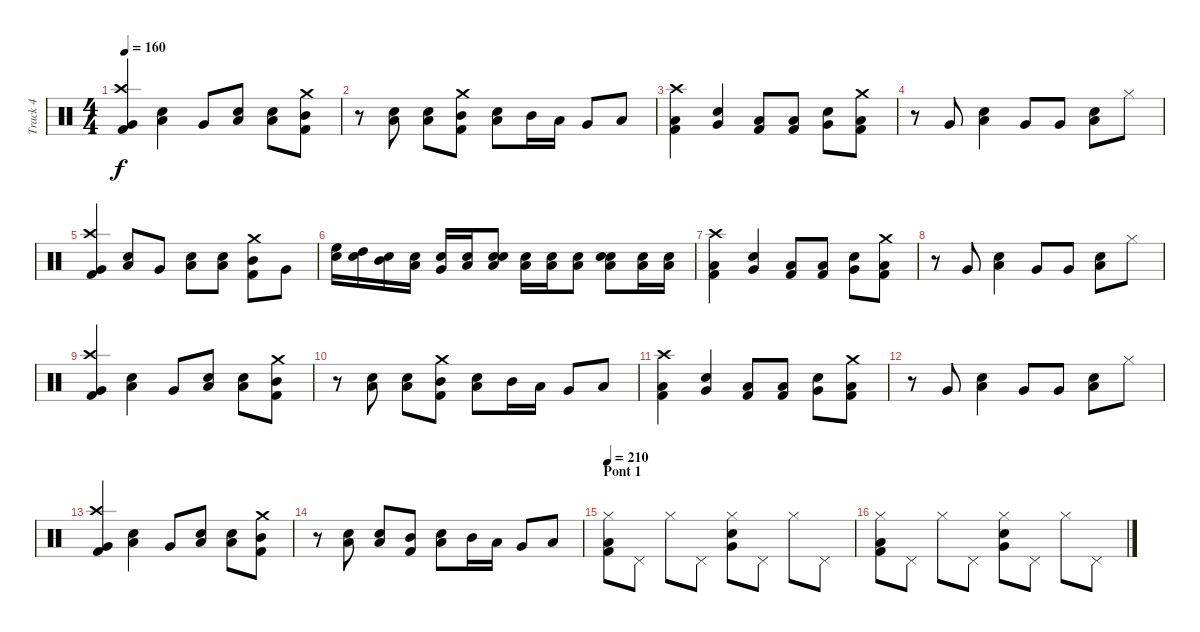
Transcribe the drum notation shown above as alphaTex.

\track ("Track 4" "Track 4") {instrument percussion}
\staff {score}
\articulation defaults
\ts (4 4)
\tempo 160
\clef neutral
\ks c
("Very Low Tom (hit)" "Crash high (hit)" "Kick (hit) 2").4{dy f} ("Low Tom (hit)" "Electric Snare (hit)").4 "Very Low Tom (hit)".8 ("Low Tom (hit)" "Electric Snare (hit)").8 ("Low Tom (hit)" "Electric Snare (hit)").8 ("Mid Tom (hit)" "Kick (hit) 2" "Crash medium (hit)").8 |
r.8 ("Low Tom (hit)" "Electric Snare (hit)").8 ("Low Tom (hit)" "Electric Snare (hit)").8 ("Mid Tom (hit)" "Kick (hit) 2" "Crash medium (hit)").8 ("Low Tom (hit)" "Electric Snare (hit)").8 "Mid Tom (hit)".16 "Low Tom (hit)".16 "Very Low Tom (hit)".8 "Low Floor Tom (hit)".8 |
("Low Tom (hit)" "Crash high (hit)" "Kick (hit) 2").4 ("Electric Snare (hit)" "Very Low Tom (hit)").4 ("Low Tom (hit)" "Kick (hit) 2").8 ("Low Tom (hit)" "Kick (hit) 2").8 ("Electric Snare (hit)" "Very Low Tom (hit)").8 ("Low Tom (hit)" "Kick (hit) 2" "Crash medium (hit)").8 |
r.8 "Very Low Tom (hit)".8 ("Low Tom (hit)" "Electric Snare (hit)").4 "Very Low Tom (hit)".8 "Very Low Tom (hit)".8 ("Low Tom (hit)" "Electric Snare (hit)").8 "Hi-Hat (closed)".8 |
("Very Low Tom (hit)" "Crash high (hit)" "Kick (hit) 2").4 ("Low Tom (hit)" "Electric Snare (hit)").8 "Very Low Tom (hit)".8 ("Low Tom (hit)" "Electric Snare (hit)").8 ("Low Tom (hit)" "Electric Snare (hit)").8 ("Mid Tom (hit)" "Kick (hit) 2" "Crash medium (hit)").8 "Very Low Tom (hit)".8 |
("High Floor Tom (hit)" "Electric Snare (hit)").16 ("High Tom (hit)" "Electric Snare (hit)").16 ("Mid Tom (hit)" "Electric Snare (hit)").16 ("Low Tom (hit)" "Electric Snare (hit)").16 ("Very Low Tom (hit)" "Electric Snare (hit)").16 ("Low Floor Tom (hit)" "Electric Snare (hit)").16 ("Low Tom (hit)" "Electric Snare (hit)" "Snare (hit) 2").8 ("Low Tom (hit)" "Electric Snare (hit)").16 ("Low Floor Tom (hit)" "Electric Snare (hit)").16 ("Low Floor Tom (hit)" "Electric Snare (hit)").8 ("Low Floor Tom (hit)" "Electric Snare (hit)" "Snare (hit) 2").8 ("Low Tom (hit)" "Electric Snare (hit)").16 ("Low Floor Tom (hit)" "Electric Snare (hit)").16 |
("Low Tom (hit)" "Crash high (hit)" "Kick (hit) 2").4 ("Electric Snare (hit)" "Very Low Tom (hit)").4 ("Low Tom (hit)" "Kick (hit) 2").8 ("Low Tom (hit)" "Kick (hit) 2").8 ("Electric Snare (hit)" "Very Low Tom (hit)").8 ("Low Tom (hit)" "Kick (hit) 2" "Crash medium (hit)").8 |
r.8 "Very Low Tom (hit)".8 ("Low Tom (hit)" "Electric Snare (hit)").4 "Very Low Tom (hit)".8 "Very Low Tom (hit)".8 ("Low Tom (hit)" "Electric Snare (hit)").8 "Hi-Hat (closed)".8 |
("Very Low Tom (hit)" "Crash high (hit)" "Kick (hit) 2").4 ("Low Tom (hit)" "Electric Snare (hit)").4 "Very Low Tom (hit)".8 ("Low Tom (hit)" "Electric Snare (hit)").8 ("Low Tom (hit)" "Electric Snare (hit)").8 ("Mid Tom (hit)" "Kick (hit) 2" "Crash medium (hit)").8 |
r.8 ("Low Tom (hit)" "Electric Snare (hit)").8 ("Low Tom (hit)" "Electric Snare (hit)").8 ("Mid Tom (hit)" "Kick (hit) 2" "Crash medium (hit)").8 ("Low Tom (hit)" "Electric Snare (hit)").8 "Mid Tom (hit)".16 "Low Tom (hit)".16 "Very Low Tom (hit)".8 "Low Floor Tom (hit)".8 |
("Low Tom (hit)" "Crash high (hit)" "Kick (hit) 2").4 ("Electric Snare (hit)" "Very Low Tom (hit)").4 ("Low Tom (hit)" "Kick (hit) 2").8 ("Low Tom (hit)" "Kick (hit) 2").8 ("Electric Snare (hit)" "Very Low Tom (hit)").8 ("Low Tom (hit)" "Kick (hit) 2" "Crash medium (hit)").8 |
r.8 "Very Low Tom (hit)".8 ("Low Tom (hit)" "Electric Snare (hit)").4 "Very Low Tom (hit)".8 "Very Low Tom (hit)".8 ("Low Tom (hit)" "Electric Snare (hit)").8 "Hi-Hat (closed)".8 |
("Very Low Tom (hit)" "Crash high (hit)" "Kick (hit) 2").4 ("Low Tom (hit)" "Electric Snare (hit)").4 "Very Low Tom (hit)".8 ("Low Tom (hit)" "Electric Snare (hit)").8 ("Low Tom (hit)" "Electric Snare (hit)").8 ("Mid Tom (hit)" "Kick (hit) 2" "Crash medium (hit)").8 |
r.8 ("Low Tom (hit)" "Electric Snare (hit)").8 ("Low Tom (hit)" "Electric Snare (hit)").8 ("Mid Tom (hit)" "Kick (hit) 2").8 ("Low Tom (hit)" "Electric Snare (hit)").8 "Mid Tom (hit)".16 "Low Tom (hit)".16 "Very Low Tom (hit)".8 "Low Floor Tom (hit)".8 |
\section ("" "Pont 1")
\tempo 210
("Kick (hit) 2" "Low Tom (hit)" "Hi-Hat (closed)").8 "Pedal Hi-Hat (hit)".8 "Hi-Hat (closed)".8 "Pedal Hi-Hat (hit)".8 ("Electric Snare (hit)" "Very Low Tom (hit)" "Hi-Hat (closed)").8 "Pedal Hi-Hat (hit)".8 "Hi-Hat (closed)".8 "Pedal Hi-Hat (hit)".8 |
("Kick (hit) 2" "Low Tom (hit)" "Hi-Hat (closed)").8 "Pedal Hi-Hat (hit)".8 "Hi-Hat (closed)".8 "Pedal Hi-Hat (hit)".8 ("Electric Snare (hit)" "Very Low Tom (hit)" "Hi-Hat (closed)").8 "Pedal Hi-Hat (hit)".8 "Hi-Hat (closed)".8 "Pedal Hi-Hat (hit)".8
